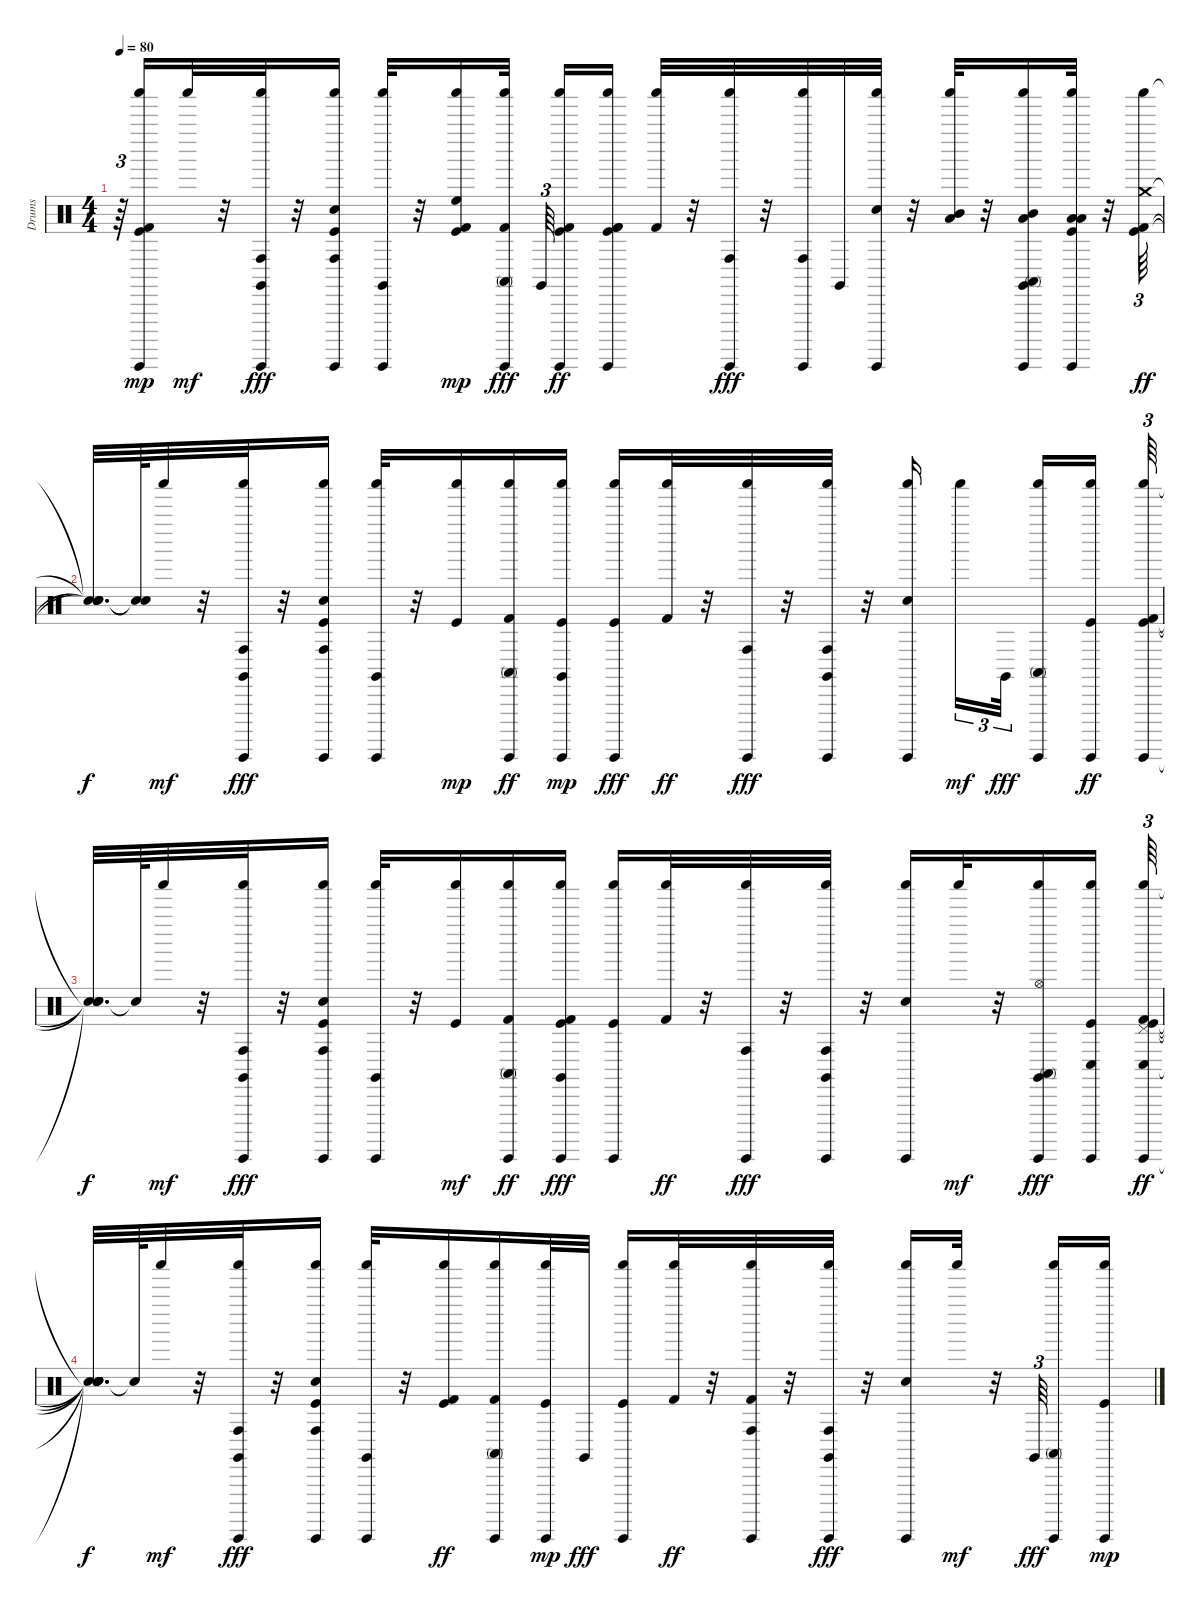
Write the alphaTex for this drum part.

\track ("Drums" "Drums") {instrument percussion}
\staff {score}
\articulation defaults
\ts (4 4)
\tempo 80
\clef neutral
\ks c
r.64{tu (3 2) dy f} ("Kick (hit) 2" "Guiro (hit)" "Shaker (hit)" "Kick (hit)").16{dy mp} "Shaker (hit)".32{dy mf} r.32 ("Guiro (hit)" "Shaker (hit)" "Conga high (hit)" "Claves (hit)").32{dy fff} r.32 ("Electric Snare (hit)" "Guiro (hit)" "Shaker (hit)" "Kick (hit)" "Conga high (hit)").16 ("Claves (hit)" "Guiro (hit)" "Shaker (hit)").32 r.32 ("Kick (hit) 2" "Shaker (hit)" "Kick (hit)" "High Floor Tom (hit)").16{dy mp} ("Kick (hit) 2" "Guiro (hit)" "Shaker (hit)" "Conga high (mute)").32{dy fff} "Claves (hit)".64{tu (3 2)} ("Guiro (hit)" "Shaker (hit)" "Kick (hit)" "Kick (hit) 2").16{dy ff} ("Kick (hit) 2" "Guiro (hit)" "Shaker (hit)" "Kick (hit)" "Kick (hit) 2").16 ("Shaker (hit)" "Kick (hit) 2").32 r.32 ("Guiro (hit)" "Shaker (hit)" "Conga high (hit)").32{dy fff} r.32 ("Guiro (hit)" "Shaker (hit)" "Conga high (hit)").32 "Claves (hit)".32 ("Electric Snare (hit)" "Guiro (hit)" "Shaker (hit)").32 r.32 ("Shaker (hit)" "Low Floor Tom (hit)" "Mid Tom (hit)").32 r.32 ("Claves (hit)" "Guiro (hit)" "Shaker (hit)" "Conga high (mute)" "Mid Tom (hit)" "Low Floor Tom (hit)").16 ("Guiro (hit)" "Shaker (hit)" "Kick (hit)" "Low Floor Tom (hit)" "Low Tom (hit)").32 r.32 ("Shaker (hit)" "Kick (hit)" "Crash medium (hit)" "Kick (hit) 2").64{tu (3 2) dy ff} |
("Snare (hit)"{t} "Snare (hit)"{t} "Snare (hit)"{t} "Snare (hit)"{t}).32{d dy f} ("Snare (hit)"{t} "Snare (hit)"{t}).64 "Shaker (hit)".32{dy mf} r.32 ("Claves (hit)" "Shaker (hit)" "Guiro (hit)" "Conga high (hit)").32{dy fff} r.32 ("Shaker (hit)" "Kick (hit)" "Guiro (hit)" "Conga high (hit)" "Electric Snare (hit)").16 ("Claves (hit)" "Shaker (hit)" "Guiro (hit)").32 r.32 ("Shaker (hit)" "Kick (hit)").16{dy mp} ("Shaker (hit)" "Guiro (hit)" "Conga high (mute)" "Kick (hit) 2").16{dy ff} ("Claves (hit)" "Shaker (hit)" "Kick (hit)" "Guiro (hit)").16{dy mp} ("Shaker (hit)" "Kick (hit)" "Guiro (hit)").16{dy fff} ("Shaker (hit)" "Kick (hit) 2").32{dy ff} r.32 ("Shaker (hit)" "Guiro (hit)" "Conga high (hit)").32{dy fff} r.32 ("Claves (hit)" "Shaker (hit)" "Guiro (hit)" "Conga high (hit)").32 r.32 ("Shaker (hit)" "Guiro (hit)" "Electric Snare (hit)").16 "Shaker (hit)".16{tu (3 2) dy mf} "Claves (hit)".32{tu (3 2) dy fff} ("Shaker (hit)" "Guiro (hit)" "Conga high (mute)").16 ("Shaker (hit)" "Kick (hit)" "Guiro (hit)").16{dy ff} ("Kick (hit)" "Guiro (hit)" "Shaker (hit)" "Kick (hit) 2").64{tu (3 2)} |
("Snare (hit)"{t} "Snare (hit)"{t} "Snare (hit)"{t} "Snare (hit)"{t}).32{d dy f} "Snare (hit)"{t}.64 "Shaker (hit)".32{dy mf} r.32 ("Guiro (hit)" "Shaker (hit)" "Conga high (hit)" "Claves (hit)").32{dy fff} r.32 ("Kick (hit)" "Guiro (hit)" "Shaker (hit)" "Conga high (hit)" "Electric Snare (hit)").16 ("Claves (hit)" "Guiro (hit)" "Shaker (hit)").32 r.32 ("Kick (hit)" "Shaker (hit)").16{dy mf} ("Guiro (hit)" "Shaker (hit)" "Conga high (mute)" "Kick (hit) 2").16{dy ff} ("Kick (hit)" "Guiro (hit)" "Shaker (hit)" "Kick (hit) 2" "Claves (hit)").16{dy fff} ("Kick (hit)" "Guiro (hit)" "Shaker (hit)").16 ("Shaker (hit)" "Kick (hit) 2").32{dy ff} r.32 ("Guiro (hit)" "Shaker (hit)" "Conga high (hit)").32{dy fff} r.32 ("Claves (hit)" "Guiro (hit)" "Shaker (hit)" "Conga high (hit)").32 r.32 ("Guiro (hit)" "Shaker (hit)" "Electric Snare (hit)").16 "Shaker (hit)".32{dy mf} r.32 ("Claves (hit)" "Guiro (hit)" "Shaker (hit)" "Hi-Hat (open)" "Conga high (mute)").16{dy fff} ("Kick (hit)" "Guiro (hit)" "Shaker (hit)" "Conga low (hit)").16 ("Kick (hit)" "Guiro (hit)" "Shaker (hit)" "Pedal Hi-Hat (hit)" "Conga low (hit)" "Kick (hit) 2").64{tu (3 2) dy ff} |
("Snare (hit)"{t} "Snare (hit)"{t} "Snare (hit)"{t} "Snare (hit)"{t} "Snare (hit)"{t} "Snare (hit)"{t}).32{d dy f} "Snare (hit)"{t}.64 "Shaker (hit)".32{dy mf} r.32 ("Guiro (hit)" "Shaker (hit)" "Conga high (hit)" "Claves (hit)").32{dy fff} r.32 ("Kick (hit)" "Guiro (hit)" "Shaker (hit)" "Conga high (hit)" "Electric Snare (hit)").16 ("Claves (hit)" "Guiro (hit)" "Shaker (hit)").32 r.32 ("Kick (hit)" "Shaker (hit)" "Kick (hit) 2").16{dy ff} ("Guiro (hit)" "Shaker (hit)" "Conga high (mute)" "Kick (hit) 2").16 ("Kick (hit)" "Guiro (hit)" "Shaker (hit)").32{dy mp} "Claves (hit)".32{dy fff} ("Kick (hit)" "Guiro (hit)" "Shaker (hit)").16 ("Shaker (hit)" "Kick (hit) 2").32{dy ff} r.32 ("Guiro (hit)" "Shaker (hit)" "Conga high (hit)" "Kick (hit) 2").32 r.32 ("Claves (hit)" "Guiro (hit)" "Shaker (hit)" "Conga high (hit)").32{dy fff} r.32 ("Guiro (hit)" "Shaker (hit)" "Electric Snare (hit)").16 "Shaker (hit)".32{dy mf} r.32 "Claves (hit)".64{tu (3 2) dy fff} ("Guiro (hit)" "Shaker (hit)" "Conga high (mute)").16 ("Kick (hit)" "Guiro (hit)" "Shaker (hit)").16{dy mp}
